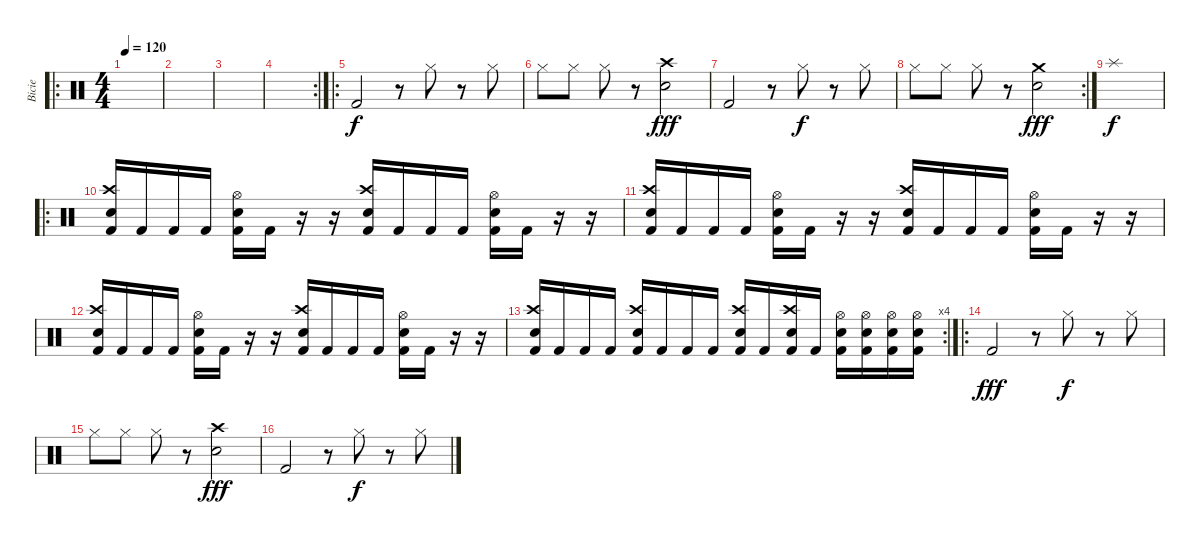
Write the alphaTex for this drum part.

\track ("Bicie" "Bicie") {instrument percussion}
\staff {score}
\articulation defaults
\ro
\ts (4 4)
\tempo 120
\clef neutral
\ks c
|
|
|
\rc 2
|
\ro "Kick (hit) 2".2
r.8 "Hi-Hat (closed)".8{dy f} r.8 "Hi-Hat (closed)".8 |
"Hi-Hat (closed)".8 "Hi-Hat (closed)".8 "Hi-Hat (closed)".8 r.8 ("Crash high (hit)" "Electric Snare (hit)").2{dy fff} |
"Kick (hit) 2".2 r.8 "Hi-Hat (closed)".8{dy f} r.8 "Hi-Hat (closed)".8 |
\rc 2 "Hi-Hat (closed)".8 "Hi-Hat (closed)".8 "Hi-Hat (closed)".8
r.8 ("Crash medium (hit)" "Electric Snare (hit)").2{dy fff} |
"Splash (hit)".1{dy f} |
\ro
("Crash high (hit)" "Electric Snare (hit)" "Kick (hit) 2").16 "Kick (hit) 2".16 "Kick (hit) 2".16 "Kick (hit) 2".16 ("Hi-Hat (open)" "Electric Snare (hit)" "Kick (hit) 2").16 "Kick (hit) 2".16 r.16 r.16 ("Crash high (hit)" "Electric Snare (hit)" "Kick (hit) 2").16 "Kick (hit) 2".16 "Kick (hit) 2".16 "Kick (hit) 2".16 ("Hi-Hat (open)" "Electric Snare (hit)" "Kick (hit) 2").16 "Kick (hit) 2".16 r.16 r.16 |
("Crash high (hit)" "Electric Snare (hit)" "Kick (hit) 2").16 "Kick (hit) 2".16 "Kick (hit) 2".16 "Kick (hit) 2".16 ("Hi-Hat (open)" "Electric Snare (hit)" "Kick (hit) 2").16 "Kick (hit) 2".16 r.16 r.16 ("Crash high (hit)" "Electric Snare (hit)" "Kick (hit) 2").16 "Kick (hit) 2".16 "Kick (hit) 2".16 "Kick (hit) 2".16 ("Hi-Hat (open)" "Electric Snare (hit)" "Kick (hit) 2").16 "Kick (hit) 2".16 r.16 r.16 |
("Crash high (hit)" "Electric Snare (hit)" "Kick (hit) 2").16 "Kick (hit) 2".16 "Kick (hit) 2".16 "Kick (hit) 2".16 ("Hi-Hat (open)" "Electric Snare (hit)" "Kick (hit) 2").16 "Kick (hit) 2".16 r.16 r.16 ("Crash high (hit)" "Electric Snare (hit)" "Kick (hit) 2").16 "Kick (hit) 2".16 "Kick (hit) 2".16 "Kick (hit) 2".16 ("Hi-Hat (open)" "Electric Snare (hit)" "Kick (hit) 2").16 "Kick (hit) 2".16 r.16 r.16 |
\rc 4
("Crash high (hit)" "Electric Snare (hit)" "Kick (hit) 2").16 "Kick (hit) 2".16 "Kick (hit) 2".16 "Kick (hit) 2".16 ("Crash high (hit)" "Electric Snare (hit)" "Kick (hit) 2").16 "Kick (hit) 2".16 "Kick (hit) 2".16 "Kick (hit) 2".16 ("Crash high (hit)" "Electric Snare (hit)" "Kick (hit) 2").16 "Kick (hit) 2".16 ("Crash high (hit)" "Electric Snare (hit)" "Kick (hit) 2").16 "Kick (hit) 2".16 ("Hi-Hat (open)" "Electric Snare (hit)" "Kick (hit) 2").16 ("Hi-Hat (open)" "Electric Snare (hit)" "Kick (hit) 2").16 ("Hi-Hat (open)" "Electric Snare (hit)" "Kick (hit) 2").16 ("Hi-Hat (open)" "Electric Snare (hit)" "Kick (hit) 2").16 |
\ro "Kick (hit) 2".2{dy fff}
r.8 "Hi-Hat (closed)".8{dy f} r.8 "Hi-Hat (closed)".8 |
"Hi-Hat (closed)".8 "Hi-Hat (closed)".8 "Hi-Hat (closed)".8 r.8 ("Crash high (hit)" "Electric Snare (hit)").2{dy fff} |
"Kick (hit) 2".2 r.8 "Hi-Hat (closed)".8{dy f} r.8 "Hi-Hat (closed)".8
